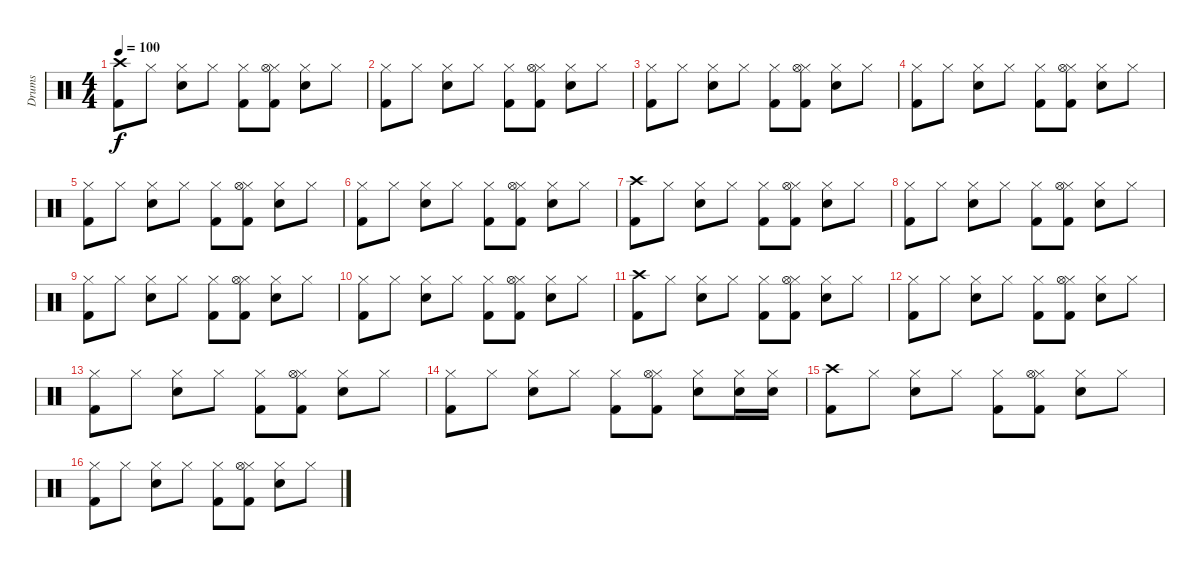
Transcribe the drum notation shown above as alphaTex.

\track ("Drums" "Drums") {instrument percussion}
\staff {score}
\articulation defaults
\ts (4 4)
\tempo 100
\clef neutral
\ks c
("Crash high (hit)" "Kick (hit) 2").8{dy f} "Hi-Hat (closed)".8 ("Hi-Hat (closed)" "Electric Snare (hit)").8 "Hi-Hat (closed)".8 ("Hi-Hat (closed)" "Kick (hit) 2").8 ("Hi-Hat (closed)" "Kick (hit) 2" "Hi-Hat (open)").8 ("Hi-Hat (closed)" "Electric Snare (hit)").8 "Hi-Hat (closed)".8 |
("Hi-Hat (closed)" "Kick (hit) 2").8 "Hi-Hat (closed)".8 ("Hi-Hat (closed)" "Electric Snare (hit)").8 "Hi-Hat (closed)".8 ("Hi-Hat (closed)" "Kick (hit) 2").8 ("Hi-Hat (closed)" "Kick (hit) 2" "Hi-Hat (open)").8 ("Hi-Hat (closed)" "Electric Snare (hit)").8 "Hi-Hat (closed)".8 |
("Hi-Hat (closed)" "Kick (hit) 2").8 "Hi-Hat (closed)".8 ("Hi-Hat (closed)" "Electric Snare (hit)").8 "Hi-Hat (closed)".8 ("Hi-Hat (closed)" "Kick (hit) 2").8 ("Hi-Hat (closed)" "Kick (hit) 2" "Hi-Hat (open)").8 ("Hi-Hat (closed)" "Electric Snare (hit)").8 "Hi-Hat (closed)".8 |
("Hi-Hat (closed)" "Kick (hit) 2").8 "Hi-Hat (closed)".8 ("Hi-Hat (closed)" "Electric Snare (hit)").8 "Hi-Hat (closed)".8 ("Hi-Hat (closed)" "Kick (hit) 2").8 ("Hi-Hat (closed)" "Kick (hit) 2" "Hi-Hat (open)").8 ("Hi-Hat (closed)" "Electric Snare (hit)").8 "Hi-Hat (closed)".8 |
("Hi-Hat (closed)" "Kick (hit) 2").8 "Hi-Hat (closed)".8 ("Hi-Hat (closed)" "Electric Snare (hit)").8 "Hi-Hat (closed)".8 ("Hi-Hat (closed)" "Kick (hit) 2").8 ("Hi-Hat (closed)" "Kick (hit) 2" "Hi-Hat (open)").8 ("Hi-Hat (closed)" "Electric Snare (hit)").8 "Hi-Hat (closed)".8 |
("Hi-Hat (closed)" "Kick (hit) 2").8 "Hi-Hat (closed)".8 ("Hi-Hat (closed)" "Electric Snare (hit)").8 "Hi-Hat (closed)".8 ("Hi-Hat (closed)" "Kick (hit) 2").8 ("Hi-Hat (closed)" "Kick (hit) 2" "Hi-Hat (open)").8 ("Hi-Hat (closed)" "Electric Snare (hit)").8 "Hi-Hat (closed)".8 |
("Crash high (hit)" "Kick (hit) 2").8 "Hi-Hat (closed)".8 ("Hi-Hat (closed)" "Electric Snare (hit)").8 "Hi-Hat (closed)".8 ("Hi-Hat (closed)" "Kick (hit) 2").8 ("Hi-Hat (closed)" "Kick (hit) 2" "Hi-Hat (open)").8 ("Hi-Hat (closed)" "Electric Snare (hit)").8 "Hi-Hat (closed)".8 |
("Hi-Hat (closed)" "Kick (hit) 2").8 "Hi-Hat (closed)".8 ("Hi-Hat (closed)" "Electric Snare (hit)").8 "Hi-Hat (closed)".8 ("Hi-Hat (closed)" "Kick (hit) 2").8 ("Hi-Hat (closed)" "Kick (hit) 2" "Hi-Hat (open)").8 ("Hi-Hat (closed)" "Electric Snare (hit)").8 "Hi-Hat (closed)".8 |
("Hi-Hat (closed)" "Kick (hit) 2").8 "Hi-Hat (closed)".8 ("Hi-Hat (closed)" "Electric Snare (hit)").8 "Hi-Hat (closed)".8 ("Hi-Hat (closed)" "Kick (hit) 2").8 ("Hi-Hat (closed)" "Kick (hit) 2" "Hi-Hat (open)").8 ("Hi-Hat (closed)" "Electric Snare (hit)").8 "Hi-Hat (closed)".8 |
("Hi-Hat (closed)" "Kick (hit) 2").8 "Hi-Hat (closed)".8 ("Hi-Hat (closed)" "Electric Snare (hit)").8 "Hi-Hat (closed)".8 ("Hi-Hat (closed)" "Kick (hit) 2").8 ("Hi-Hat (closed)" "Kick (hit) 2" "Hi-Hat (open)").8 ("Hi-Hat (closed)" "Electric Snare (hit)").8 "Hi-Hat (closed)".8 |
("Crash high (hit)" "Kick (hit) 2").8 "Hi-Hat (closed)".8 ("Hi-Hat (closed)" "Electric Snare (hit)").8 "Hi-Hat (closed)".8 ("Hi-Hat (closed)" "Kick (hit) 2").8 ("Hi-Hat (closed)" "Kick (hit) 2" "Hi-Hat (open)").8 ("Hi-Hat (closed)" "Electric Snare (hit)").8 "Hi-Hat (closed)".8 |
("Hi-Hat (closed)" "Kick (hit) 2").8 "Hi-Hat (closed)".8 ("Hi-Hat (closed)" "Electric Snare (hit)").8 "Hi-Hat (closed)".8 ("Hi-Hat (closed)" "Kick (hit) 2").8 ("Hi-Hat (closed)" "Kick (hit) 2" "Hi-Hat (open)").8 ("Hi-Hat (closed)" "Electric Snare (hit)").8 "Hi-Hat (closed)".8 |
("Hi-Hat (closed)" "Kick (hit) 2").8 "Hi-Hat (closed)".8 ("Hi-Hat (closed)" "Electric Snare (hit)").8 "Hi-Hat (closed)".8 ("Hi-Hat (closed)" "Kick (hit) 2").8 ("Hi-Hat (closed)" "Kick (hit) 2" "Hi-Hat (open)").8 ("Hi-Hat (closed)" "Electric Snare (hit)").8 "Hi-Hat (closed)".8 |
("Hi-Hat (closed)" "Kick (hit) 2").8 "Hi-Hat (closed)".8 ("Hi-Hat (closed)" "Electric Snare (hit)").8 "Hi-Hat (closed)".8 ("Hi-Hat (closed)" "Kick (hit) 2").8 ("Hi-Hat (closed)" "Kick (hit) 2" "Hi-Hat (open)").8 ("Hi-Hat (closed)" "Electric Snare (hit)").8 ("Hi-Hat (closed)" "Electric Snare (hit)").16 ("Hi-Hat (closed)" "Electric Snare (hit)").16 |
("Crash high (hit)" "Kick (hit) 2").8 "Hi-Hat (closed)".8 ("Hi-Hat (closed)" "Electric Snare (hit)").8 "Hi-Hat (closed)".8 ("Hi-Hat (closed)" "Kick (hit) 2").8 ("Hi-Hat (closed)" "Kick (hit) 2" "Hi-Hat (open)").8 ("Hi-Hat (closed)" "Electric Snare (hit)").8 "Hi-Hat (closed)".8 |
("Hi-Hat (closed)" "Kick (hit) 2").8 "Hi-Hat (closed)".8 ("Hi-Hat (closed)" "Electric Snare (hit)").8 "Hi-Hat (closed)".8 ("Hi-Hat (closed)" "Kick (hit) 2").8 ("Hi-Hat (closed)" "Kick (hit) 2" "Hi-Hat (open)").8 ("Hi-Hat (closed)" "Electric Snare (hit)").8 "Hi-Hat (closed)".8
